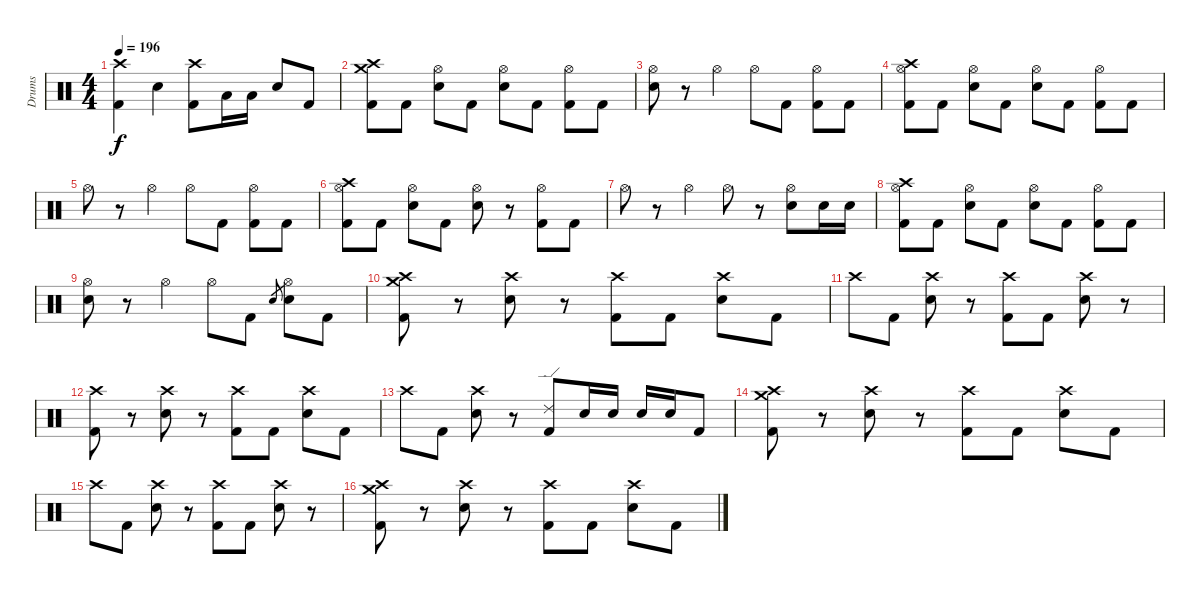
\track ("Drums" "Drums") {instrument percussion}
\staff {score}
\articulation defaults
\ts (4 4)
\tempo 196
\clef neutral
\ks c
("Crash high (hit)" "Kick (hit) 2").4{dy f} "Electric Snare (hit)".4 ("Crash high (hit)" "Kick (hit) 2").8 "Low Tom (hit)".16 "Low Tom (hit)".16 "Electric Snare (hit)".8 "Kick (hit) 2".8 |
("Crash medium (hit)" "Crash high (hit)" "Kick (hit) 2").8 "Kick (hit) 2".8 ("Hi-Hat (open)" "Electric Snare (hit)").8 "Kick (hit) 2".8 ("Hi-Hat (open)" "Electric Snare (hit)").8 "Kick (hit) 2".8 ("Hi-Hat (open)" "Kick (hit) 2").8 "Kick (hit) 2".8 |
("Hi-Hat (open)" "Electric Snare (hit)").8 r.8 "Hi-Hat (open)".4 "Hi-Hat (open)".8 "Kick (hit) 2".8 ("Hi-Hat (open)" "Kick (hit) 2").8 "Kick (hit) 2".8 |
("Crash high (hit)" "Hi-Hat (open)" "Kick (hit) 2").8 "Kick (hit) 2".8 ("Hi-Hat (open)" "Electric Snare (hit)").8 "Kick (hit) 2".8 ("Hi-Hat (open)" "Electric Snare (hit)").8 "Kick (hit) 2".8 ("Hi-Hat (open)" "Kick (hit) 2").8 "Kick (hit) 2".8 |
"Hi-Hat (open)".8 r.8 "Hi-Hat (open)".4 "Hi-Hat (open)".8 "Kick (hit) 2".8 ("Hi-Hat (open)" "Kick (hit) 2").8 "Kick (hit) 2".8 |
("Crash high (hit)" "Hi-Hat (open)" "Kick (hit) 2").8 "Kick (hit) 2".8 ("Hi-Hat (open)" "Electric Snare (hit)").8 "Kick (hit) 2".8 ("Hi-Hat (open)" "Electric Snare (hit)").8 r.8 ("Hi-Hat (open)" "Kick (hit) 2").8 "Kick (hit) 2".8 |
"Hi-Hat (open)".8 r.8 "Hi-Hat (open)".4 "Hi-Hat (open)".8 r.8 ("Hi-Hat (open)" "Electric Snare (hit)").8 "Electric Snare (hit)".16 "Electric Snare (hit)".16 |
("Crash high (hit)" "Hi-Hat (open)" "Kick (hit) 2").8 "Kick (hit) 2".8 ("Hi-Hat (open)" "Electric Snare (hit)").8 "Kick (hit) 2".8 ("Hi-Hat (open)" "Electric Snare (hit)").8 "Kick (hit) 2".8 ("Hi-Hat (open)" "Kick (hit) 2").8 "Kick (hit) 2".8 |
("Hi-Hat (open)" "Electric Snare (hit)").8 r.8 "Hi-Hat (open)".4 "Hi-Hat (open)".8 "Kick (hit) 2".8 "Electric Snare (hit)".8{gr} ("Hi-Hat (open)" "Electric Snare (hit)").8 "Kick (hit) 2".8 |
("Crash medium (hit)" "Crash high (hit)" "Kick (hit) 2").8 r.8 ("Crash high (hit)" "Electric Snare (hit)").8 r.8 ("Crash high (hit)" "Kick (hit) 2").8 "Kick (hit) 2".8 ("Crash high (hit)" "Electric Snare (hit)").8 "Kick (hit) 2".8 |
"Crash high (hit)".8 "Kick (hit) 2".8 ("Crash high (hit)" "Electric Snare (hit)").8 r.8 ("Crash high (hit)" "Kick (hit) 2").8 "Kick (hit) 2".8 ("Crash high (hit)" "Electric Snare (hit)").8 r.8 |
("Crash high (hit)" "Kick (hit) 2").8 r.8 ("Crash high (hit)" "Electric Snare (hit)").8 r.8 ("Crash high (hit)" "Kick (hit) 2").8 "Kick (hit) 2".8 ("Crash high (hit)" "Electric Snare (hit)").8 "Kick (hit) 2".8 |
"Crash high (hit)".8 "Kick (hit) 2".8 ("Crash high (hit)" "Electric Snare (hit)").8 r.8 ("Ride (edge) 2" "Kick (hit) 2").8 "Electric Snare (hit)".16 "Electric Snare (hit)".16 "Electric Snare (hit)".16 "Electric Snare (hit)".16 "Kick (hit) 2".8 |
("Crash medium (hit)" "Crash high (hit)" "Kick (hit) 2").8 r.8 ("Crash high (hit)" "Electric Snare (hit)").8 r.8 ("Crash high (hit)" "Kick (hit) 2").8 "Kick (hit) 2".8 ("Crash high (hit)" "Electric Snare (hit)").8 "Kick (hit) 2".8 |
"Crash high (hit)".8 "Kick (hit) 2".8 ("Crash high (hit)" "Electric Snare (hit)").8 r.8 ("Crash high (hit)" "Kick (hit) 2").8 "Kick (hit) 2".8 ("Crash high (hit)" "Electric Snare (hit)").8 r.8 |
("Crash medium (hit)" "Crash high (hit)" "Kick (hit) 2").8 r.8 ("Crash high (hit)" "Electric Snare (hit)").8 r.8 ("Crash high (hit)" "Kick (hit) 2").8 "Kick (hit) 2".8 ("Crash high (hit)" "Electric Snare (hit)").8 "Kick (hit) 2".8
